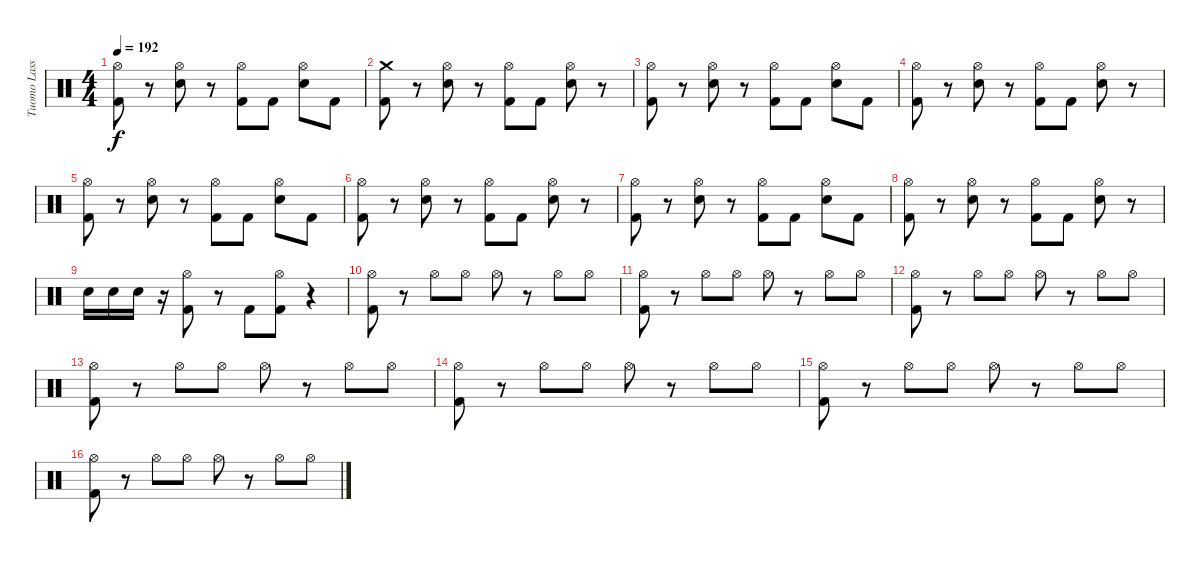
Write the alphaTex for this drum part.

\track ("Tuomo Lassilla" "Tuomo Lass") {instrument percussion}
\staff {score}
\articulation defaults
\ts (4 4)
\tempo 192
\clef neutral
\ks c
("Hi-Hat (open)" "Kick (hit) 2").8{dy f} r.8 ("Hi-Hat (open)" "Electric Snare (hit)").8 r.8 ("Hi-Hat (open)" "Kick (hit) 2").8 "Kick (hit) 2".8 ("Hi-Hat (open)" "Electric Snare (hit)").8 "Kick (hit) 2".8 |
("Crash medium (hit)" "Kick (hit) 2").8 r.8 ("Hi-Hat (open)" "Electric Snare (hit)").8 r.8 ("Hi-Hat (open)" "Kick (hit) 2").8 "Kick (hit) 2".8 ("Hi-Hat (open)" "Electric Snare (hit)").8 r.8 |
("Hi-Hat (open)" "Kick (hit) 2").8 r.8 ("Hi-Hat (open)" "Electric Snare (hit)").8 r.8 ("Hi-Hat (open)" "Kick (hit) 2").8 "Kick (hit) 2".8 ("Hi-Hat (open)" "Electric Snare (hit)").8 "Kick (hit) 2".8 |
("Hi-Hat (open)" "Kick (hit) 2").8 r.8 ("Hi-Hat (open)" "Electric Snare (hit)").8 r.8 ("Hi-Hat (open)" "Kick (hit) 2").8 "Kick (hit) 2".8 ("Hi-Hat (open)" "Electric Snare (hit)").8 r.8 |
("Hi-Hat (open)" "Kick (hit) 2").8 r.8 ("Hi-Hat (open)" "Electric Snare (hit)").8 r.8 ("Hi-Hat (open)" "Kick (hit) 2").8 "Kick (hit) 2".8 ("Hi-Hat (open)" "Electric Snare (hit)").8 "Kick (hit) 2".8 |
("Hi-Hat (open)" "Kick (hit) 2").8 r.8 ("Hi-Hat (open)" "Electric Snare (hit)").8 r.8 ("Hi-Hat (open)" "Kick (hit) 2").8 "Kick (hit) 2".8 ("Hi-Hat (open)" "Electric Snare (hit)").8 r.8 |
("Hi-Hat (open)" "Kick (hit) 2").8 r.8 ("Hi-Hat (open)" "Electric Snare (hit)").8 r.8 ("Hi-Hat (open)" "Kick (hit) 2").8 "Kick (hit) 2".8 ("Hi-Hat (open)" "Electric Snare (hit)").8 "Kick (hit) 2".8 |
("Hi-Hat (open)" "Kick (hit) 2").8 r.8 ("Hi-Hat (open)" "Electric Snare (hit)").8 r.8 ("Hi-Hat (open)" "Kick (hit) 2").8 "Kick (hit) 2".8 ("Hi-Hat (open)" "Electric Snare (hit)").8 r.8 |
"Snare (hit) 2".16 "Snare (hit) 2".16 "Electric Snare (hit)".16 r.16 ("Hi-Hat (open)" "Kick (hit) 2").8 r.8 "Kick (hit) 2".8 ("Hi-Hat (open)" "Kick (hit) 2").8 r.4 |
("Kick (hit) 2" "Hi-Hat (open)").8 r.8 "Hi-Hat (open)".8 "Hi-Hat (open)".8 "Hi-Hat (open)".8 r.8 "Hi-Hat (open)".8 "Hi-Hat (open)".8 |
("Kick (hit) 2" "Hi-Hat (open)").8 r.8 "Hi-Hat (open)".8 "Hi-Hat (open)".8 "Hi-Hat (open)".8 r.8 "Hi-Hat (open)".8 "Hi-Hat (open)".8 |
("Kick (hit) 2" "Hi-Hat (open)").8 r.8 "Hi-Hat (open)".8 "Hi-Hat (open)".8 "Hi-Hat (open)".8 r.8 "Hi-Hat (open)".8 "Hi-Hat (open)".8 |
("Kick (hit) 2" "Hi-Hat (open)").8 r.8 "Hi-Hat (open)".8 "Hi-Hat (open)".8 "Hi-Hat (open)".8 r.8 "Hi-Hat (open)".8 "Hi-Hat (open)".8 |
("Kick (hit) 2" "Hi-Hat (open)").8 r.8 "Hi-Hat (open)".8 "Hi-Hat (open)".8 "Hi-Hat (open)".8 r.8 "Hi-Hat (open)".8 "Hi-Hat (open)".8 |
("Kick (hit) 2" "Hi-Hat (open)").8 r.8 "Hi-Hat (open)".8 "Hi-Hat (open)".8 "Hi-Hat (open)".8 r.8 "Hi-Hat (open)".8 "Hi-Hat (open)".8 |
("Kick (hit) 2" "Hi-Hat (open)").8 r.8 "Hi-Hat (open)".8 "Hi-Hat (open)".8 "Hi-Hat (open)".8 r.8 "Hi-Hat (open)".8 "Hi-Hat (open)".8
